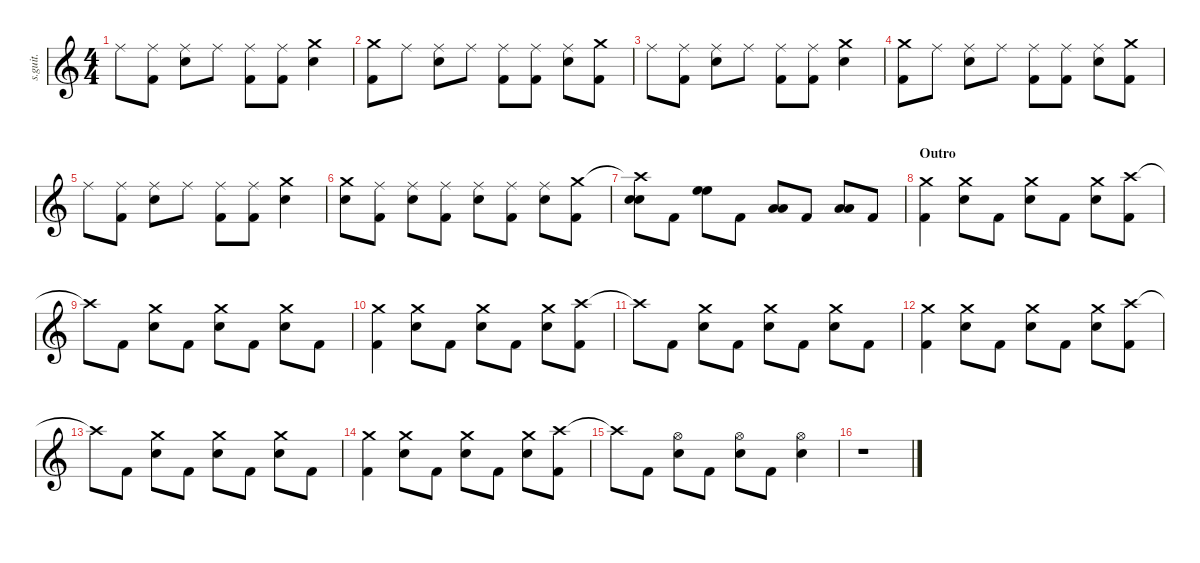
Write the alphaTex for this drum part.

\defaultSystemsLayout 4
\hideDynamics
\bracketExtendMode nobrackets
\track ("Earth" "s.guit.") {instrument percussion}
\staff {score}
\articulation defaults
\ts (4 4)
\tempo (130 hide)
\clef g2
\ks c "Ride (middle)".8{lyrics (0 "") lyrics (1 "") lyrics (2 "") lyrics (3 "") lyrics (4 "") dy f}
("Ride (middle)" "Kick (hit) 2").8{lyrics (0 "") lyrics (1 "") lyrics (2 "") lyrics (3 "") lyrics (4 "")} ("Ride (middle)" "Snare (hit) 2").8{lyrics (0 "") lyrics (1 "") lyrics (2 "") lyrics (3 "") lyrics (4 "")} "Ride (middle)".8{lyrics (0 "") lyrics (1 "") lyrics (2 "") lyrics (3 "") lyrics (4 "")} ("Ride (middle)" "Kick (hit) 2").8{lyrics (0 "") lyrics (1 "") lyrics (2 "") lyrics (3 "") lyrics (4 "")} ("Ride (middle)" "Kick (hit) 2").8{lyrics (0 "") lyrics (1 "") lyrics (2 "") lyrics (3 "") lyrics (4 "")} ("Crash medium (hit)" "Snare (hit) 2").4{lyrics (0 "") lyrics (1 "") lyrics (2 "") lyrics (3 "") lyrics (4 "")} |
("Crash medium (hit)" "Kick (hit) 2").8{lyrics (0 "") lyrics (1 "") lyrics (2 "") lyrics (3 "") lyrics (4 "")} "Ride (middle)".8{lyrics (0 "") lyrics (1 "") lyrics (2 "") lyrics (3 "") lyrics (4 "")} ("Ride (middle)" "Snare (hit) 2").8{lyrics (0 "") lyrics (1 "") lyrics (2 "") lyrics (3 "") lyrics (4 "")} "Ride (middle)".8{lyrics (0 "") lyrics (1 "") lyrics (2 "") lyrics (3 "") lyrics (4 "")} ("Ride (middle)" "Kick (hit) 2").8{lyrics (0 "") lyrics (1 "") lyrics (2 "") lyrics (3 "") lyrics (4 "")} ("Ride (middle)" "Kick (hit) 2").8{lyrics (0 "") lyrics (1 "") lyrics (2 "") lyrics (3 "") lyrics (4 "")} ("Ride (middle)" "Snare (hit) 2").8{lyrics (0 "") lyrics (1 "") lyrics (2 "") lyrics (3 "") lyrics (4 "")} ("Crash medium (hit)" "Kick (hit) 2").8{lyrics (0 "") lyrics (1 "") lyrics (2 "") lyrics (3 "") lyrics (4 "")} |
"Ride (middle)".8{lyrics (0 "") lyrics (1 "") lyrics (2 "") lyrics (3 "") lyrics (4 "")} ("Ride (middle)" "Kick (hit) 2").8{lyrics (0 "") lyrics (1 "") lyrics (2 "") lyrics (3 "") lyrics (4 "")} ("Ride (middle)" "Snare (hit) 2").8{lyrics (0 "") lyrics (1 "") lyrics (2 "") lyrics (3 "") lyrics (4 "")} "Ride (middle)".8{lyrics (0 "") lyrics (1 "") lyrics (2 "") lyrics (3 "") lyrics (4 "")} ("Ride (middle)" "Kick (hit) 2").8{lyrics (0 "") lyrics (1 "") lyrics (2 "") lyrics (3 "") lyrics (4 "")} ("Ride (middle)" "Kick (hit) 2").8{lyrics (0 "") lyrics (1 "") lyrics (2 "") lyrics (3 "") lyrics (4 "")} ("Crash medium (hit)" "Snare (hit) 2").4{lyrics (0 "") lyrics (1 "") lyrics (2 "") lyrics (3 "") lyrics (4 "")} |
("Crash medium (hit)" "Kick (hit) 2").8{lyrics (0 "") lyrics (1 "") lyrics (2 "") lyrics (3 "") lyrics (4 "")} "Ride (middle)".8{lyrics (0 "") lyrics (1 "") lyrics (2 "") lyrics (3 "") lyrics (4 "")} ("Ride (middle)" "Snare (hit) 2").8{lyrics (0 "") lyrics (1 "") lyrics (2 "") lyrics (3 "") lyrics (4 "")} "Ride (middle)".8{lyrics (0 "") lyrics (1 "") lyrics (2 "") lyrics (3 "") lyrics (4 "")} ("Ride (middle)" "Kick (hit) 2").8{lyrics (0 "") lyrics (1 "") lyrics (2 "") lyrics (3 "") lyrics (4 "")} ("Ride (middle)" "Kick (hit) 2").8{lyrics (0 "") lyrics (1 "") lyrics (2 "") lyrics (3 "") lyrics (4 "")} ("Ride (middle)" "Snare (hit) 2").8{lyrics (0 "") lyrics (1 "") lyrics (2 "") lyrics (3 "") lyrics (4 "")} ("Crash medium (hit)" "Kick (hit) 2").8{lyrics (0 "") lyrics (1 "") lyrics (2 "") lyrics (3 "") lyrics (4 "")} |
"Ride (middle)".8{lyrics (0 "") lyrics (1 "") lyrics (2 "") lyrics (3 "") lyrics (4 "")} ("Ride (middle)" "Kick (hit) 2").8{lyrics (0 "") lyrics (1 "") lyrics (2 "") lyrics (3 "") lyrics (4 "")} ("Ride (middle)" "Snare (hit) 2").8{lyrics (0 "") lyrics (1 "") lyrics (2 "") lyrics (3 "") lyrics (4 "")} "Ride (middle)".8{lyrics (0 "") lyrics (1 "") lyrics (2 "") lyrics (3 "") lyrics (4 "")} ("Ride (middle)" "Kick (hit) 2").8{lyrics (0 "") lyrics (1 "") lyrics (2 "") lyrics (3 "") lyrics (4 "")} ("Ride (middle)" "Kick (hit) 2").8{lyrics (0 "") lyrics (1 "") lyrics (2 "") lyrics (3 "") lyrics (4 "")} ("Crash medium (hit)" "Snare (hit) 2").4{lyrics (0 "") lyrics (1 "") lyrics (2 "") lyrics (3 "") lyrics (4 "")} |
("Crash medium (hit)" "Snare (hit) 2").8{lyrics (0 "") lyrics (1 "") lyrics (2 "") lyrics (3 "") lyrics (4 "")} ("Ride (middle)" "Kick (hit) 2").8{lyrics (0 "") lyrics (1 "") lyrics (2 "") lyrics (3 "") lyrics (4 "")} ("Ride (middle)" "Snare (hit) 2").8{lyrics (0 "") lyrics (1 "") lyrics (2 "") lyrics (3 "") lyrics (4 "")} ("Ride (middle)" "Kick (hit) 2").8{lyrics (0 "") lyrics (1 "") lyrics (2 "") lyrics (3 "") lyrics (4 "")} ("Ride (middle)" "Snare (hit) 2").8{lyrics (0 "") lyrics (1 "") lyrics (2 "") lyrics (3 "") lyrics (4 "")} ("Ride (middle)" "Kick (hit) 2").8{lyrics (0 "") lyrics (1 "") lyrics (2 "") lyrics (3 "") lyrics (4 "")} ("Ride (middle)" "Snare (hit) 2").8{lyrics (0 "") lyrics (1 "") lyrics (2 "") lyrics (3 "") lyrics (4 "")} ("Crash medium (hit)" "Kick (hit) 2").8{lyrics (0 "") lyrics (1 "") lyrics (2 "") lyrics (3 "") lyrics (4 "")} |
("Crash high (hit)"{t} "Snare (hit) 2" "Snare (hit) 2").8{lyrics (0 "") lyrics (1 "") lyrics (2 "") lyrics (3 "") lyrics (4 "")} "Kick (hit) 2".8{lyrics (0 "") lyrics (1 "") lyrics (2 "") lyrics (3 "") lyrics (4 "")} ("High Floor Tom (hit)" "High Floor Tom (hit)").8{lyrics (0 "") lyrics (1 "") lyrics (2 "") lyrics (3 "") lyrics (4 "")} "Kick (hit) 2".8{lyrics (0 "") lyrics (1 "") lyrics (2 "") lyrics (3 "") lyrics (4 "")} ("Low Tom (hit)" "Low Tom (hit)").8{lyrics (0 "") lyrics (1 "") lyrics (2 "") lyrics (3 "") lyrics (4 "")} "Kick (hit) 2".8{lyrics (0 "") lyrics (1 "") lyrics (2 "") lyrics (3 "") lyrics (4 "")} ("Low Tom (hit)" "Low Tom (hit)").8{lyrics (0 "") lyrics (1 "") lyrics (2 "") lyrics (3 "") lyrics (4 "")} "Kick (hit) 2".8{lyrics (0 "") lyrics (1 "") lyrics (2 "") lyrics (3 "") lyrics (4 "")} |
\section ("" "Outro")
("Crash medium (hit)" "Kick (hit) 2").4{lyrics (0 "") lyrics (1 "") lyrics (2 "") lyrics (3 "") lyrics (4 "")} ("Crash medium (hit)" "Snare (hit) 2").8{lyrics (0 "") lyrics (1 "") lyrics (2 "") lyrics (3 "") lyrics (4 "")} "Kick (hit) 2".8{lyrics (0 "") lyrics (1 "") lyrics (2 "") lyrics (3 "") lyrics (4 "")} ("Crash medium (hit)" "Snare (hit) 2").8{lyrics (0 "") lyrics (1 "") lyrics (2 "") lyrics (3 "") lyrics (4 "")} "Kick (hit) 2".8{lyrics (0 "") lyrics (1 "") lyrics (2 "") lyrics (3 "") lyrics (4 "")} ("Crash medium (hit)" "Snare (hit) 2").8{lyrics (0 "") lyrics (1 "") lyrics (2 "") lyrics (3 "") lyrics (4 "")} ("Crash high (hit)" "Kick (hit) 2").8{lyrics (0 "") lyrics (1 "") lyrics (2 "") lyrics (3 "") lyrics (4 "")} |
"Crash high (hit)"{t}.8{lyrics (0 "") lyrics (1 "") lyrics (2 "") lyrics (3 "") lyrics (4 "")} "Kick (hit) 2".8{lyrics (0 "") lyrics (1 "") lyrics (2 "") lyrics (3 "") lyrics (4 "")} ("Crash medium (hit)" "Snare (hit) 2").8{lyrics (0 "") lyrics (1 "") lyrics (2 "") lyrics (3 "") lyrics (4 "")} "Kick (hit) 2".8{lyrics (0 "") lyrics (1 "") lyrics (2 "") lyrics (3 "") lyrics (4 "")} ("Crash medium (hit)" "Snare (hit) 2").8{lyrics (0 "") lyrics (1 "") lyrics (2 "") lyrics (3 "") lyrics (4 "")} "Kick (hit) 2".8{lyrics (0 "") lyrics (1 "") lyrics (2 "") lyrics (3 "") lyrics (4 "")} ("Crash medium (hit)" "Snare (hit) 2").8{lyrics (0 "") lyrics (1 "") lyrics (2 "") lyrics (3 "") lyrics (4 "")} "Kick (hit) 2".8{lyrics (0 "") lyrics (1 "") lyrics (2 "") lyrics (3 "") lyrics (4 "")} |
("Crash medium (hit)" "Kick (hit) 2").4{lyrics (0 "") lyrics (1 "") lyrics (2 "") lyrics (3 "") lyrics (4 "")} ("Crash medium (hit)" "Snare (hit) 2").8{lyrics (0 "") lyrics (1 "") lyrics (2 "") lyrics (3 "") lyrics (4 "")} "Kick (hit) 2".8{lyrics (0 "") lyrics (1 "") lyrics (2 "") lyrics (3 "") lyrics (4 "")} ("Crash medium (hit)" "Snare (hit) 2").8{lyrics (0 "") lyrics (1 "") lyrics (2 "") lyrics (3 "") lyrics (4 "")} "Kick (hit) 2".8{lyrics (0 "") lyrics (1 "") lyrics (2 "") lyrics (3 "") lyrics (4 "")} ("Crash medium (hit)" "Snare (hit) 2").8{lyrics (0 "") lyrics (1 "") lyrics (2 "") lyrics (3 "") lyrics (4 "")} ("Crash high (hit)" "Kick (hit) 2").8{lyrics (0 "") lyrics (1 "") lyrics (2 "") lyrics (3 "") lyrics (4 "")} |
"Crash high (hit)"{t}.8{lyrics (0 "") lyrics (1 "") lyrics (2 "") lyrics (3 "") lyrics (4 "")} "Kick (hit) 2".8{lyrics (0 "") lyrics (1 "") lyrics (2 "") lyrics (3 "") lyrics (4 "")} ("Crash medium (hit)" "Snare (hit) 2").8{lyrics (0 "") lyrics (1 "") lyrics (2 "") lyrics (3 "") lyrics (4 "")} "Kick (hit) 2".8{lyrics (0 "") lyrics (1 "") lyrics (2 "") lyrics (3 "") lyrics (4 "")} ("Crash medium (hit)" "Snare (hit) 2").8{lyrics (0 "") lyrics (1 "") lyrics (2 "") lyrics (3 "") lyrics (4 "")} "Kick (hit) 2".8{lyrics (0 "") lyrics (1 "") lyrics (2 "") lyrics (3 "") lyrics (4 "")} ("Crash medium (hit)" "Snare (hit) 2").8{lyrics (0 "") lyrics (1 "") lyrics (2 "") lyrics (3 "") lyrics (4 "")} "Kick (hit) 2".8{lyrics (0 "") lyrics (1 "") lyrics (2 "") lyrics (3 "") lyrics (4 "")} |
("Crash medium (hit)" "Kick (hit) 2").4{lyrics (0 "") lyrics (1 "") lyrics (2 "") lyrics (3 "") lyrics (4 "")} ("Crash medium (hit)" "Snare (hit) 2").8{lyrics (0 "") lyrics (1 "") lyrics (2 "") lyrics (3 "") lyrics (4 "")} "Kick (hit) 2".8{lyrics (0 "") lyrics (1 "") lyrics (2 "") lyrics (3 "") lyrics (4 "")} ("Crash medium (hit)" "Snare (hit) 2").8{lyrics (0 "") lyrics (1 "") lyrics (2 "") lyrics (3 "") lyrics (4 "")} "Kick (hit) 2".8{lyrics (0 "") lyrics (1 "") lyrics (2 "") lyrics (3 "") lyrics (4 "")} ("Crash medium (hit)" "Snare (hit) 2").8{lyrics (0 "") lyrics (1 "") lyrics (2 "") lyrics (3 "") lyrics (4 "")} ("Crash high (hit)" "Kick (hit) 2").8{lyrics (0 "") lyrics (1 "") lyrics (2 "") lyrics (3 "") lyrics (4 "")} |
"Crash high (hit)"{t}.8{lyrics (0 "") lyrics (1 "") lyrics (2 "") lyrics (3 "") lyrics (4 "")} "Kick (hit) 2".8{lyrics (0 "") lyrics (1 "") lyrics (2 "") lyrics (3 "") lyrics (4 "")} ("Crash medium (hit)" "Snare (hit) 2").8{lyrics (0 "") lyrics (1 "") lyrics (2 "") lyrics (3 "") lyrics (4 "")} "Kick (hit) 2".8{lyrics (0 "") lyrics (1 "") lyrics (2 "") lyrics (3 "") lyrics (4 "")} ("Crash medium (hit)" "Snare (hit) 2").8{lyrics (0 "") lyrics (1 "") lyrics (2 "") lyrics (3 "") lyrics (4 "")} "Kick (hit) 2".8{lyrics (0 "") lyrics (1 "") lyrics (2 "") lyrics (3 "") lyrics (4 "")} ("Crash medium (hit)" "Snare (hit) 2").8{lyrics (0 "") lyrics (1 "") lyrics (2 "") lyrics (3 "") lyrics (4 "")} "Kick (hit) 2".8{lyrics (0 "") lyrics (1 "") lyrics (2 "") lyrics (3 "") lyrics (4 "")} |
("Crash medium (hit)" "Kick (hit) 2").4{lyrics (0 "") lyrics (1 "") lyrics (2 "") lyrics (3 "") lyrics (4 "")} ("Crash medium (hit)" "Snare (hit) 2").8{lyrics (0 "") lyrics (1 "") lyrics (2 "") lyrics (3 "") lyrics (4 "")} "Kick (hit) 2".8{lyrics (0 "") lyrics (1 "") lyrics (2 "") lyrics (3 "") lyrics (4 "")} ("Crash medium (hit)" "Snare (hit) 2").8{lyrics (0 "") lyrics (1 "") lyrics (2 "") lyrics (3 "") lyrics (4 "")} "Kick (hit) 2".8{lyrics (0 "") lyrics (1 "") lyrics (2 "") lyrics (3 "") lyrics (4 "")} ("Crash medium (hit)" "Snare (hit) 2").8{lyrics (0 "") lyrics (1 "") lyrics (2 "") lyrics (3 "") lyrics (4 "")} ("Crash high (hit)" "Kick (hit) 2").8{lyrics (0 "") lyrics (1 "") lyrics (2 "") lyrics (3 "") lyrics (4 "")} |
"Crash high (hit)"{t}.8{lyrics (0 "") lyrics (1 "") lyrics (2 "") lyrics (3 "") lyrics (4 "")} "Kick (hit) 2".8{lyrics (0 "") lyrics (1 "") lyrics (2 "") lyrics (3 "") lyrics (4 "")} ("Hi-Hat (open)" "Snare (hit) 2").8{lyrics (0 "") lyrics (1 "") lyrics (2 "") lyrics (3 "") lyrics (4 "")} "Kick (hit) 2".8{lyrics (0 "") lyrics (1 "") lyrics (2 "") lyrics (3 "") lyrics (4 "")} ("Hi-Hat (open)" "Snare (hit) 2").8{lyrics (0 "") lyrics (1 "") lyrics (2 "") lyrics (3 "") lyrics (4 "")} "Kick (hit) 2".8{lyrics (0 "") lyrics (1 "") lyrics (2 "") lyrics (3 "") lyrics (4 "")} ("Hi-Hat (open)" "Snare (hit) 2").4{lyrics (0 "") lyrics (1 "") lyrics (2 "") lyrics (3 "") lyrics (4 "")} |
r.1
